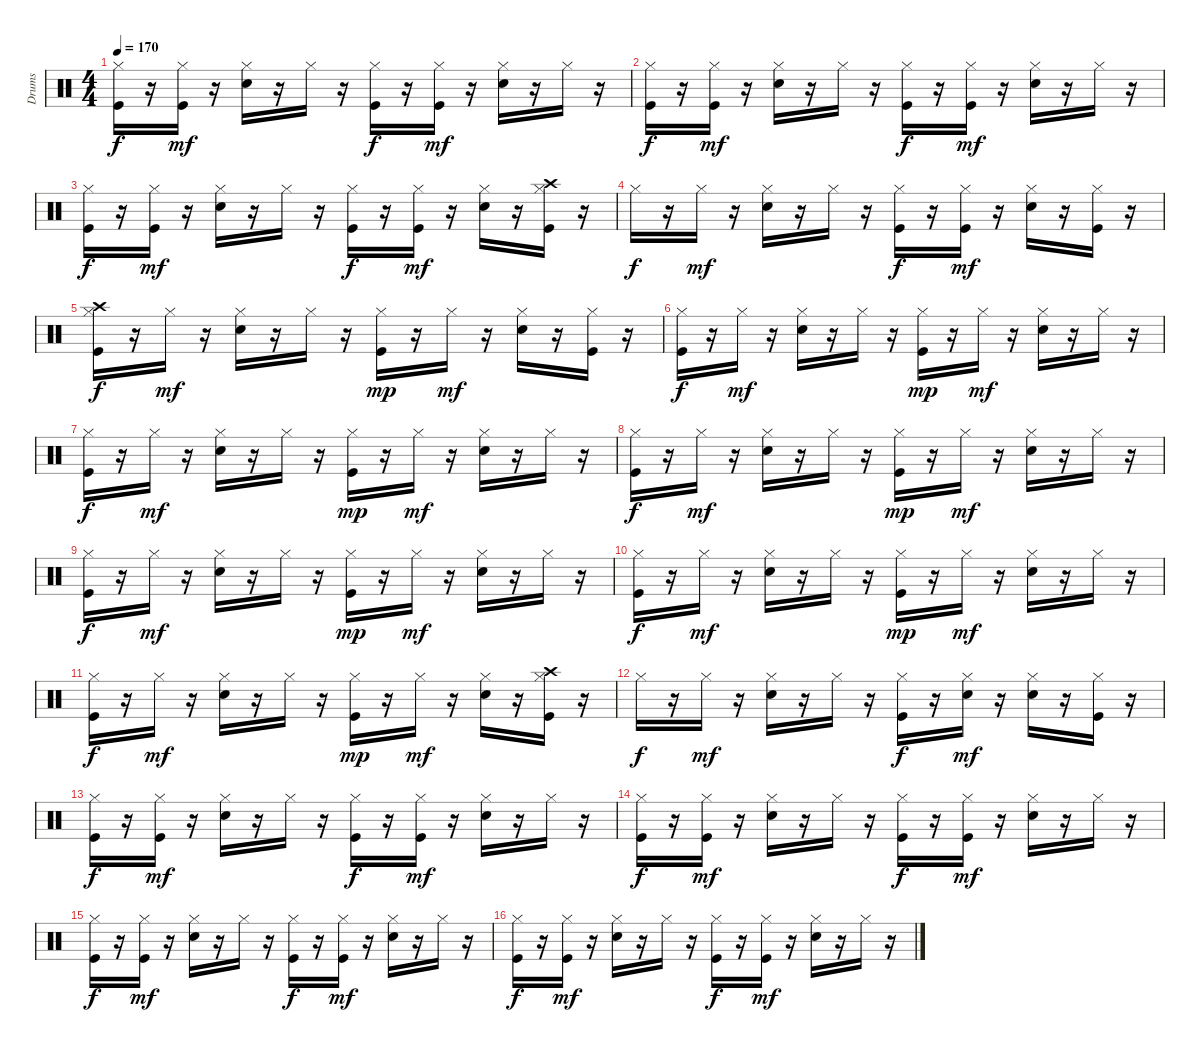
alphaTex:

\track ("Drums" "Drums") {instrument percussion}
\staff {score}
\articulation defaults
\ts (4 4)
\tempo 170
\clef neutral
\ks c
("Hi-Hat (closed)" "Kick (hit)").16{dy f} r.16 ("Hi-Hat (closed)" "Kick (hit)").16{dy mf} r.16 ("Hi-Hat (closed)" "Electric Snare (hit)").16 r.16 "Hi-Hat (closed)".16 r.16 ("Hi-Hat (closed)" "Kick (hit)").16{dy f} r.16 ("Hi-Hat (closed)" "Kick (hit)").16{dy mf} r.16 ("Hi-Hat (closed)" "Electric Snare (hit)").16 r.16 "Hi-Hat (closed)".16 r.16 |
("Hi-Hat (closed)" "Kick (hit)").16{dy f} r.16 ("Hi-Hat (closed)" "Kick (hit)").16{dy mf} r.16 ("Hi-Hat (closed)" "Electric Snare (hit)").16 r.16 "Hi-Hat (closed)".16 r.16 ("Hi-Hat (closed)" "Kick (hit)").16{dy f} r.16 ("Hi-Hat (closed)" "Kick (hit)").16{dy mf} r.16 ("Hi-Hat (closed)" "Electric Snare (hit)").16 r.16 "Hi-Hat (closed)".16 r.16 |
("Hi-Hat (closed)" "Kick (hit)").16{dy f} r.16 ("Hi-Hat (closed)" "Kick (hit)").16{dy mf} r.16 ("Hi-Hat (closed)" "Electric Snare (hit)").16 r.16 "Hi-Hat (closed)".16 r.16 ("Hi-Hat (closed)" "Kick (hit)").16{dy f} r.16 ("Hi-Hat (closed)" "Kick (hit)").16{dy mf} r.16 ("Hi-Hat (closed)" "Electric Snare (hit)").16 r.16 ("Hi-Hat (closed)" "Crash high (hit)" "Kick (hit)").16 r.16 |
"Hi-Hat (closed)".16{dy f} r.16 "Hi-Hat (closed)".16{dy mf} r.16 ("Hi-Hat (closed)" "Electric Snare (hit)").16 r.16 "Hi-Hat (closed)".16 r.16 ("Hi-Hat (closed)" "Kick (hit)").16{dy f} r.16 ("Hi-Hat (closed)" "Kick (hit)").16{dy mf} r.16 ("Hi-Hat (closed)" "Electric Snare (hit)").16 r.16 ("Hi-Hat (closed)" "Kick (hit)").16 r.16 |
("Hi-Hat (closed)" "Crash high (hit)" "Kick (hit)").16{dy f} r.16 "Hi-Hat (closed)".16{dy mf} r.16 ("Hi-Hat (closed)" "Electric Snare (hit)").16 r.16 "Hi-Hat (closed)".16 r.16 ("Hi-Hat (closed)" "Kick (hit)").16{dy mp} r.16 "Hi-Hat (closed)".16{dy mf} r.16 ("Hi-Hat (closed)" "Electric Snare (hit)").16 r.16 ("Hi-Hat (closed)" "Kick (hit)").16 r.16 |
("Hi-Hat (closed)" "Kick (hit)").16{dy f} r.16 "Hi-Hat (closed)".16{dy mf} r.16 ("Hi-Hat (closed)" "Electric Snare (hit)").16 r.16 "Hi-Hat (closed)".16 r.16 ("Hi-Hat (closed)" "Kick (hit)").16{dy mp} r.16 "Hi-Hat (closed)".16{dy mf} r.16 ("Hi-Hat (closed)" "Electric Snare (hit)").16 r.16 "Hi-Hat (closed)".16 r.16 |
("Hi-Hat (closed)" "Kick (hit)").16{dy f} r.16 "Hi-Hat (closed)".16{dy mf} r.16 ("Hi-Hat (closed)" "Electric Snare (hit)").16 r.16 "Hi-Hat (closed)".16 r.16 ("Hi-Hat (closed)" "Kick (hit)").16{dy mp} r.16 "Hi-Hat (closed)".16{dy mf} r.16 ("Hi-Hat (closed)" "Electric Snare (hit)").16 r.16 "Hi-Hat (closed)".16 r.16 |
("Hi-Hat (closed)" "Kick (hit)").16{dy f} r.16 "Hi-Hat (closed)".16{dy mf} r.16 ("Hi-Hat (closed)" "Electric Snare (hit)").16 r.16 "Hi-Hat (closed)".16 r.16 ("Hi-Hat (closed)" "Kick (hit)").16{dy mp} r.16 "Hi-Hat (closed)".16{dy mf} r.16 ("Hi-Hat (closed)" "Electric Snare (hit)").16 r.16 "Hi-Hat (closed)".16 r.16 |
("Hi-Hat (closed)" "Kick (hit)").16{dy f} r.16 "Hi-Hat (closed)".16{dy mf} r.16 ("Hi-Hat (closed)" "Electric Snare (hit)").16 r.16 "Hi-Hat (closed)".16 r.16 ("Hi-Hat (closed)" "Kick (hit)").16{dy mp} r.16 "Hi-Hat (closed)".16{dy mf} r.16 ("Hi-Hat (closed)" "Electric Snare (hit)").16 r.16 "Hi-Hat (closed)".16 r.16 |
("Hi-Hat (closed)" "Kick (hit)").16{dy f} r.16 "Hi-Hat (closed)".16{dy mf} r.16 ("Hi-Hat (closed)" "Electric Snare (hit)").16 r.16 "Hi-Hat (closed)".16 r.16 ("Hi-Hat (closed)" "Kick (hit)").16{dy mp} r.16 "Hi-Hat (closed)".16{dy mf} r.16 ("Hi-Hat (closed)" "Electric Snare (hit)").16 r.16 "Hi-Hat (closed)".16 r.16 |
("Hi-Hat (closed)" "Kick (hit)").16{dy f} r.16 "Hi-Hat (closed)".16{dy mf} r.16 ("Hi-Hat (closed)" "Electric Snare (hit)").16 r.16 "Hi-Hat (closed)".16 r.16 ("Hi-Hat (closed)" "Kick (hit)").16{dy mp} r.16 "Hi-Hat (closed)".16{dy mf} r.16 ("Hi-Hat (closed)" "Electric Snare (hit)").16 r.16 ("Hi-Hat (closed)" "Crash high (hit)" "Kick (hit)").16 r.16 |
"Hi-Hat (closed)".16{dy f} r.16 "Hi-Hat (closed)".16{dy mf} r.16 ("Hi-Hat (closed)" "Electric Snare (hit)").16 r.16 "Hi-Hat (closed)".16 r.16 ("Hi-Hat (closed)" "Kick (hit)").16{dy f} r.16 ("Hi-Hat (closed)" "Electric Snare (hit)").16{dy mf} r.16 ("Hi-Hat (closed)" "Electric Snare (hit)").16 r.16 ("Hi-Hat (closed)" "Kick (hit)").16 r.16 |
("Hi-Hat (closed)" "Kick (hit)").16{dy f} r.16 ("Hi-Hat (closed)" "Kick (hit)").16{dy mf} r.16 ("Hi-Hat (closed)" "Electric Snare (hit)").16 r.16 "Hi-Hat (closed)".16 r.16 ("Hi-Hat (closed)" "Kick (hit)").16{dy f} r.16 ("Hi-Hat (closed)" "Kick (hit)").16{dy mf} r.16 ("Hi-Hat (closed)" "Electric Snare (hit)").16 r.16 "Hi-Hat (closed)".16 r.16 |
("Hi-Hat (closed)" "Kick (hit)").16{dy f} r.16 ("Hi-Hat (closed)" "Kick (hit)").16{dy mf} r.16 ("Hi-Hat (closed)" "Electric Snare (hit)").16 r.16 "Hi-Hat (closed)".16 r.16 ("Hi-Hat (closed)" "Kick (hit)").16{dy f} r.16 ("Hi-Hat (closed)" "Kick (hit)").16{dy mf} r.16 ("Hi-Hat (closed)" "Electric Snare (hit)").16 r.16 "Hi-Hat (closed)".16 r.16 |
("Hi-Hat (closed)" "Kick (hit)").16{dy f} r.16 ("Hi-Hat (closed)" "Kick (hit)").16{dy mf} r.16 ("Hi-Hat (closed)" "Electric Snare (hit)").16 r.16 "Hi-Hat (closed)".16 r.16 ("Hi-Hat (closed)" "Kick (hit)").16{dy f} r.16 ("Hi-Hat (closed)" "Kick (hit)").16{dy mf} r.16 ("Hi-Hat (closed)" "Electric Snare (hit)").16 r.16 "Hi-Hat (closed)".16 r.16 |
("Hi-Hat (closed)" "Kick (hit)").16{dy f} r.16 ("Hi-Hat (closed)" "Kick (hit)").16{dy mf} r.16 ("Hi-Hat (closed)" "Electric Snare (hit)").16 r.16 "Hi-Hat (closed)".16 r.16 ("Hi-Hat (closed)" "Kick (hit)").16{dy f} r.16 ("Hi-Hat (closed)" "Kick (hit)").16{dy mf} r.16 ("Hi-Hat (closed)" "Electric Snare (hit)").16 r.16 "Hi-Hat (closed)".16 r.16
